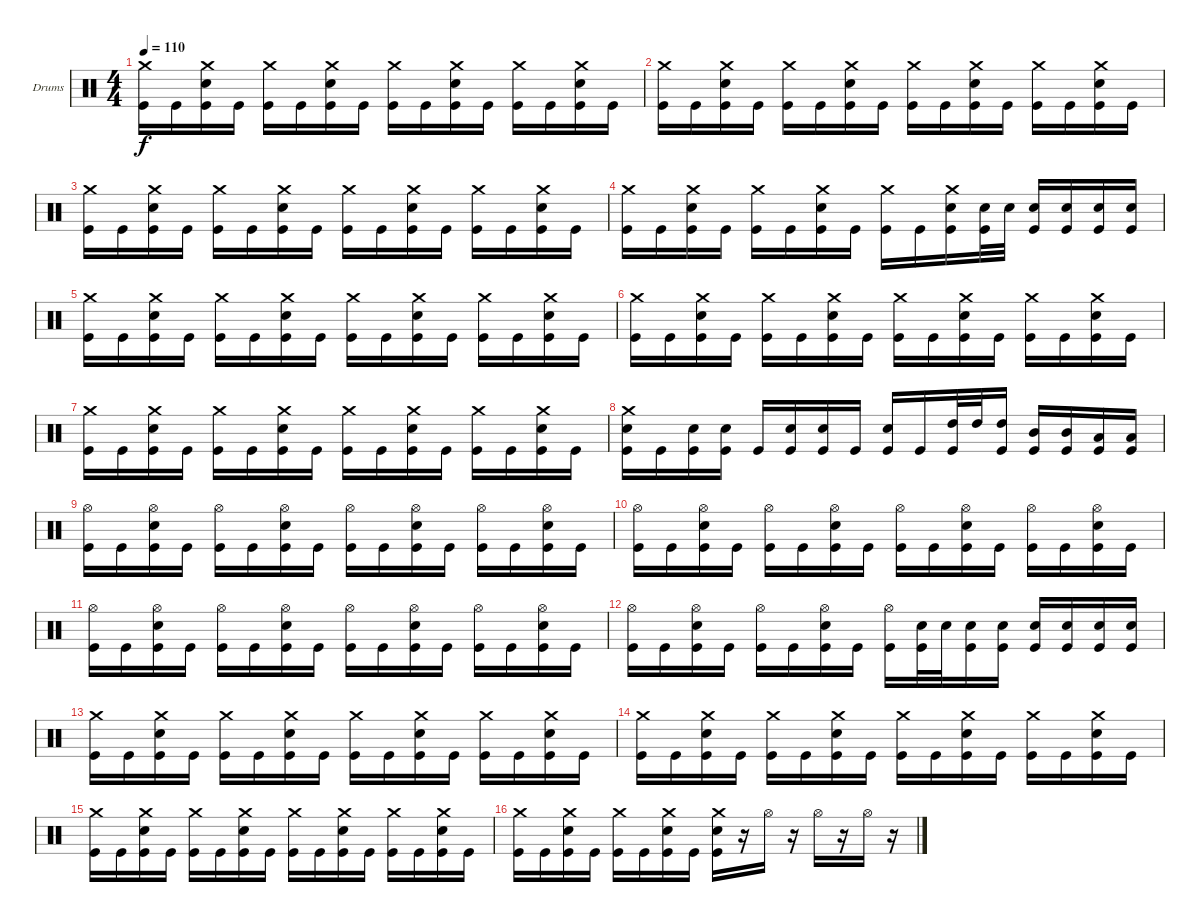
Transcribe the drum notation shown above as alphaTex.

\defaultSystemsLayout 4
\bracketExtendMode groupsimilarinstruments
\firstSystemTrackNameOrientation horizontal
\otherSystemsTrackNameOrientation horizontal
\track ("Drumkit" "Drums") {instrument percussion}
\staff {score}
\articulation defaults
\ts (4 4)
\tempo 110
\clef neutral
\ks c
("Crash medium (hit)" "Kick (hit)").16{dy f} "Kick (hit)".16 ("Crash medium (hit)" "Snare (hit) 2" "Kick (hit)").16 "Kick (hit)".16 ("Crash medium (hit)" "Kick (hit)").16 "Kick (hit)".16 ("Crash medium (hit)" "Snare (hit) 2" "Kick (hit)").16 "Kick (hit)".16 ("Crash medium (hit)" "Kick (hit)").16 "Kick (hit)".16 ("Crash medium (hit)" "Snare (hit) 2" "Kick (hit)").16 "Kick (hit)".16 ("Crash medium (hit)" "Kick (hit)").16 "Kick (hit)".16 ("Crash medium (hit)" "Snare (hit) 2" "Kick (hit)").16 "Kick (hit)".16 |
("Crash medium (hit)" "Kick (hit)").16 "Kick (hit)".16 ("Crash medium (hit)" "Snare (hit) 2" "Kick (hit)").16 "Kick (hit)".16 ("Crash medium (hit)" "Kick (hit)").16 "Kick (hit)".16 ("Crash medium (hit)" "Snare (hit) 2" "Kick (hit)").16 "Kick (hit)".16 ("Crash medium (hit)" "Kick (hit)").16 "Kick (hit)".16 ("Crash medium (hit)" "Snare (hit) 2" "Kick (hit)").16 "Kick (hit)".16 ("Crash medium (hit)" "Kick (hit)").16 "Kick (hit)".16 ("Crash medium (hit)" "Snare (hit) 2" "Kick (hit)").16 "Kick (hit)".16 |
("Crash medium (hit)" "Kick (hit)").16 "Kick (hit)".16 ("Crash medium (hit)" "Snare (hit) 2" "Kick (hit)").16 "Kick (hit)".16 ("Crash medium (hit)" "Kick (hit)").16 "Kick (hit)".16 ("Crash medium (hit)" "Snare (hit) 2" "Kick (hit)").16 "Kick (hit)".16 ("Crash medium (hit)" "Kick (hit)").16 "Kick (hit)".16 ("Crash medium (hit)" "Snare (hit) 2" "Kick (hit)").16 "Kick (hit)".16 ("Crash medium (hit)" "Kick (hit)").16 "Kick (hit)".16 ("Crash medium (hit)" "Snare (hit) 2" "Kick (hit)").16 "Kick (hit)".16 |
("Crash medium (hit)" "Kick (hit)").16 "Kick (hit)".16 ("Crash medium (hit)" "Snare (hit) 2" "Kick (hit)").16 "Kick (hit)".16 ("Crash medium (hit)" "Kick (hit)").16 "Kick (hit)".16 ("Crash medium (hit)" "Snare (hit) 2" "Kick (hit)").16 "Kick (hit)".16 ("Crash medium (hit)" "Kick (hit)").16 "Kick (hit)".16 ("Crash medium (hit)" "Snare (hit) 2" "Kick (hit)").16 ("Snare (hit) 2" "Kick (hit)").32 "Snare (hit) 2".32 ("Snare (hit) 2" "Kick (hit)").16 ("Snare (hit) 2" "Kick (hit)").16 ("Snare (hit) 2" "Kick (hit)").16 ("Snare (hit) 2" "Kick (hit)").16 |
("Crash medium (hit)" "Kick (hit)").16 "Kick (hit)".16 ("Crash medium (hit)" "Snare (hit) 2" "Kick (hit)").16 "Kick (hit)".16 ("Crash medium (hit)" "Kick (hit)").16 "Kick (hit)".16 ("Crash medium (hit)" "Snare (hit) 2" "Kick (hit)").16 "Kick (hit)".16 ("Crash medium (hit)" "Kick (hit)").16 "Kick (hit)".16 ("Crash medium (hit)" "Snare (hit) 2" "Kick (hit)").16 "Kick (hit)".16 ("Crash medium (hit)" "Kick (hit)").16 "Kick (hit)".16 ("Crash medium (hit)" "Snare (hit) 2" "Kick (hit)").16 "Kick (hit)".16 |
("Crash medium (hit)" "Kick (hit)").16 "Kick (hit)".16 ("Crash medium (hit)" "Snare (hit) 2" "Kick (hit)").16 "Kick (hit)".16 ("Crash medium (hit)" "Kick (hit)").16 "Kick (hit)".16 ("Crash medium (hit)" "Snare (hit) 2" "Kick (hit)").16 "Kick (hit)".16 ("Crash medium (hit)" "Kick (hit)").16 "Kick (hit)".16 ("Crash medium (hit)" "Snare (hit) 2" "Kick (hit)").16 "Kick (hit)".16 ("Crash medium (hit)" "Kick (hit)").16 "Kick (hit)".16 ("Crash medium (hit)" "Snare (hit) 2" "Kick (hit)").16 "Kick (hit)".16 |
("Crash medium (hit)" "Kick (hit)").16 "Kick (hit)".16 ("Crash medium (hit)" "Snare (hit) 2" "Kick (hit)").16 "Kick (hit)".16 ("Crash medium (hit)" "Kick (hit)").16 "Kick (hit)".16 ("Crash medium (hit)" "Snare (hit) 2" "Kick (hit)").16 "Kick (hit)".16 ("Crash medium (hit)" "Kick (hit)").16 "Kick (hit)".16 ("Crash medium (hit)" "Snare (hit) 2" "Kick (hit)").16 "Kick (hit)".16 ("Crash medium (hit)" "Kick (hit)").16 "Kick (hit)".16 ("Crash medium (hit)" "Snare (hit) 2" "Kick (hit)").16 "Kick (hit)".16 |
("Crash medium (hit)" "Snare (hit) 2" "Kick (hit)").16 "Kick (hit)".16 ("Snare (hit) 2" "Kick (hit)").16 ("Snare (hit) 2" "Kick (hit)").16 "Kick (hit)".16 ("Snare (hit) 2" "Kick (hit)").16 ("Snare (hit) 2" "Kick (hit)").16 "Kick (hit)".16 ("Snare (hit) 2" "Kick (hit)").16 "Kick (hit)".16 ("High Tom (hit)" "Kick (hit)").32 "High Tom (hit)".32 ("High Tom (hit)" "Kick (hit)").16 ("Mid Tom (hit)" "Kick (hit)").16 ("Mid Tom (hit)" "Kick (hit)").16 ("Low Tom (hit)" "Kick (hit)").16 ("Low Tom (hit)" "Kick (hit)").16 |
("Hi-Hat (open)" "Kick (hit)").16 "Kick (hit)".16 ("Hi-Hat (open)" "Snare (hit) 2" "Kick (hit)").16 "Kick (hit)".16 ("Hi-Hat (open)" "Kick (hit)").16 "Kick (hit)".16 ("Hi-Hat (open)" "Snare (hit) 2" "Kick (hit)").16 "Kick (hit)".16 ("Hi-Hat (open)" "Kick (hit)").16 "Kick (hit)".16 ("Hi-Hat (open)" "Snare (hit) 2" "Kick (hit)").16 "Kick (hit)".16 ("Hi-Hat (open)" "Kick (hit)").16 "Kick (hit)".16 ("Hi-Hat (open)" "Snare (hit) 2" "Kick (hit)").16 "Kick (hit)".16 |
("Hi-Hat (open)" "Kick (hit)").16 "Kick (hit)".16 ("Hi-Hat (open)" "Snare (hit) 2" "Kick (hit)").16 "Kick (hit)".16 ("Hi-Hat (open)" "Kick (hit)").16 "Kick (hit)".16 ("Hi-Hat (open)" "Snare (hit) 2" "Kick (hit)").16 "Kick (hit)".16 ("Hi-Hat (open)" "Kick (hit)").16 "Kick (hit)".16 ("Hi-Hat (open)" "Snare (hit) 2" "Kick (hit)").16 "Kick (hit)".16 ("Hi-Hat (open)" "Kick (hit)").16 "Kick (hit)".16 ("Hi-Hat (open)" "Snare (hit) 2" "Kick (hit)").16 "Kick (hit)".16 |
("Hi-Hat (open)" "Kick (hit)").16 "Kick (hit)".16 ("Hi-Hat (open)" "Snare (hit) 2" "Kick (hit)").16 "Kick (hit)".16 ("Hi-Hat (open)" "Kick (hit)").16 "Kick (hit)".16 ("Hi-Hat (open)" "Snare (hit) 2" "Kick (hit)").16 "Kick (hit)".16 ("Hi-Hat (open)" "Kick (hit)").16 "Kick (hit)".16 ("Hi-Hat (open)" "Snare (hit) 2" "Kick (hit)").16 "Kick (hit)".16 ("Hi-Hat (open)" "Kick (hit)").16 "Kick (hit)".16 ("Hi-Hat (open)" "Snare (hit) 2" "Kick (hit)").16 "Kick (hit)".16 |
("Hi-Hat (open)" "Kick (hit)").16 "Kick (hit)".16 ("Hi-Hat (open)" "Snare (hit) 2" "Kick (hit)").16 "Kick (hit)".16 ("Hi-Hat (open)" "Kick (hit)").16 "Kick (hit)".16 ("Hi-Hat (open)" "Snare (hit) 2" "Kick (hit)").16 "Kick (hit)".16 ("Hi-Hat (open)" "Kick (hit)").16 ("Snare (hit) 2" "Kick (hit)").32 "Snare (hit) 2".32 ("Snare (hit) 2" "Kick (hit)").16 ("Snare (hit) 2" "Kick (hit)").16 ("Snare (hit) 2" "Kick (hit)").16 ("Snare (hit) 2" "Kick (hit)").16 ("Snare (hit) 2" "Kick (hit)").16 ("Snare (hit) 2" "Kick (hit)").16 |
("Crash medium (hit)" "Kick (hit)").16 "Kick (hit)".16 ("Crash medium (hit)" "Snare (hit) 2" "Kick (hit)").16 "Kick (hit)".16 ("Crash medium (hit)" "Kick (hit)").16 "Kick (hit)".16 ("Crash medium (hit)" "Snare (hit) 2" "Kick (hit)").16 "Kick (hit)".16 ("Crash medium (hit)" "Kick (hit)").16 "Kick (hit)".16 ("Crash medium (hit)" "Snare (hit) 2" "Kick (hit)").16 "Kick (hit)".16 ("Crash medium (hit)" "Kick (hit)").16 "Kick (hit)".16 ("Crash medium (hit)" "Snare (hit) 2" "Kick (hit)").16 "Kick (hit)".16 |
("Crash medium (hit)" "Kick (hit)").16 "Kick (hit)".16 ("Crash medium (hit)" "Snare (hit) 2" "Kick (hit)").16 "Kick (hit)".16 ("Crash medium (hit)" "Kick (hit)").16 "Kick (hit)".16 ("Crash medium (hit)" "Snare (hit) 2" "Kick (hit)").16 "Kick (hit)".16 ("Crash medium (hit)" "Kick (hit)").16 "Kick (hit)".16 ("Crash medium (hit)" "Snare (hit) 2" "Kick (hit)").16 "Kick (hit)".16 ("Crash medium (hit)" "Kick (hit)").16 "Kick (hit)".16 ("Crash medium (hit)" "Snare (hit) 2" "Kick (hit)").16 "Kick (hit)".16 |
("Crash medium (hit)" "Kick (hit)").16 "Kick (hit)".16 ("Crash medium (hit)" "Snare (hit) 2" "Kick (hit)").16 "Kick (hit)".16 ("Crash medium (hit)" "Kick (hit)").16 "Kick (hit)".16 ("Crash medium (hit)" "Snare (hit) 2" "Kick (hit)").16 "Kick (hit)".16 ("Crash medium (hit)" "Kick (hit)").16 "Kick (hit)".16 ("Crash medium (hit)" "Snare (hit) 2" "Kick (hit)").16 "Kick (hit)".16 ("Crash medium (hit)" "Kick (hit)").16 "Kick (hit)".16 ("Crash medium (hit)" "Snare (hit) 2" "Kick (hit)").16 "Kick (hit)".16 |
("Crash medium (hit)" "Kick (hit)").16 "Kick (hit)".16 ("Crash medium (hit)" "Snare (hit) 2" "Kick (hit)").16 "Kick (hit)".16 ("Crash medium (hit)" "Kick (hit)").16 "Kick (hit)".16 ("Crash medium (hit)" "Snare (hit) 2" "Kick (hit)").16 "Kick (hit)".16 ("Crash medium (hit)" "Snare (hit) 2" "Kick (hit)").16 r.16 "Hi-Hat (open)".16 r.16 "Hi-Hat (open)".16 r.16 "Hi-Hat (open)".16 r.16
